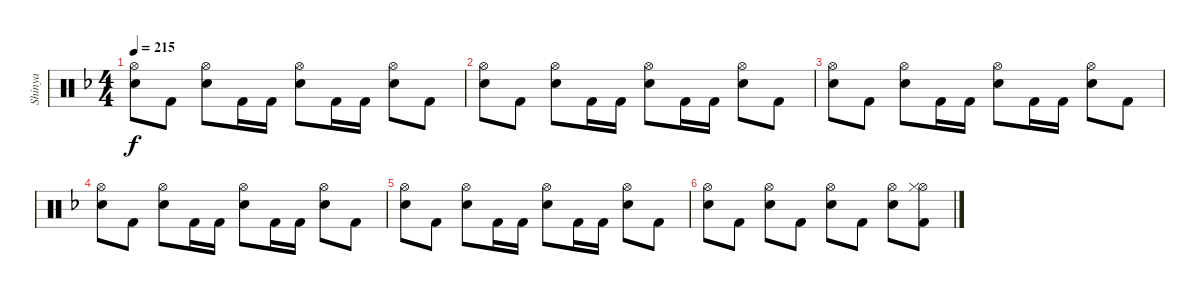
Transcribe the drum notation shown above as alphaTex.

\track ("Shinya" "Shinya") {instrument percussion}
\staff {score}
\articulation defaults
\ts (4 4)
\tempo 215
\clef neutral
\ks f
("Hi-Hat (open)" "Snare (hit) 2").8{dy f} "Kick (hit) 2".8 ("Hi-Hat (open)" "Snare (hit) 2").8 "Kick (hit) 2".16 "Kick (hit) 2".16 ("Hi-Hat (open)" "Snare (hit) 2").8 "Kick (hit) 2".16 "Kick (hit) 2".16 ("Hi-Hat (open)" "Snare (hit) 2").8 "Kick (hit) 2".8 |
("Hi-Hat (open)" "Snare (hit) 2").8 "Kick (hit) 2".8 ("Hi-Hat (open)" "Snare (hit) 2").8 "Kick (hit) 2".16 "Kick (hit) 2".16 ("Hi-Hat (open)" "Snare (hit) 2").8 "Kick (hit) 2".16 "Kick (hit) 2".16 ("Hi-Hat (open)" "Snare (hit) 2").8 "Kick (hit) 2".8 |
("Hi-Hat (open)" "Snare (hit) 2").8 "Kick (hit) 2".8 ("Hi-Hat (open)" "Snare (hit) 2").8 "Kick (hit) 2".16 "Kick (hit) 2".16 ("Hi-Hat (open)" "Snare (hit) 2").8 "Kick (hit) 2".16 "Kick (hit) 2".16 ("Hi-Hat (open)" "Snare (hit) 2").8 "Kick (hit) 2".8 |
("Hi-Hat (open)" "Snare (hit) 2").8 "Kick (hit) 2".8 ("Hi-Hat (open)" "Snare (hit) 2").8 "Kick (hit) 2".16 "Kick (hit) 2".16 ("Hi-Hat (open)" "Snare (hit) 2").8 "Kick (hit) 2".16 "Kick (hit) 2".16 ("Hi-Hat (open)" "Snare (hit) 2").8 "Kick (hit) 2".8 |
("Hi-Hat (open)" "Snare (hit) 2").8 "Kick (hit) 2".8 ("Hi-Hat (open)" "Snare (hit) 2").8 "Kick (hit) 2".16 "Kick (hit) 2".16 ("Hi-Hat (open)" "Snare (hit) 2").8 "Kick (hit) 2".16 "Kick (hit) 2".16 ("Hi-Hat (open)" "Snare (hit) 2").8 "Kick (hit) 2".8 |
("Hi-Hat (open)" "Snare (hit) 2").8 "Kick (hit) 2".8 ("Hi-Hat (open)" "Snare (hit) 2").8 "Kick (hit) 2".8 ("Hi-Hat (open)" "Snare (hit) 2").8 "Kick (hit) 2".8 ("Hi-Hat (open)" "Snare (hit) 2").8 ("Hi-Hat (open)" "Hi-Hat (closed)" "Kick (hit) 2").8
